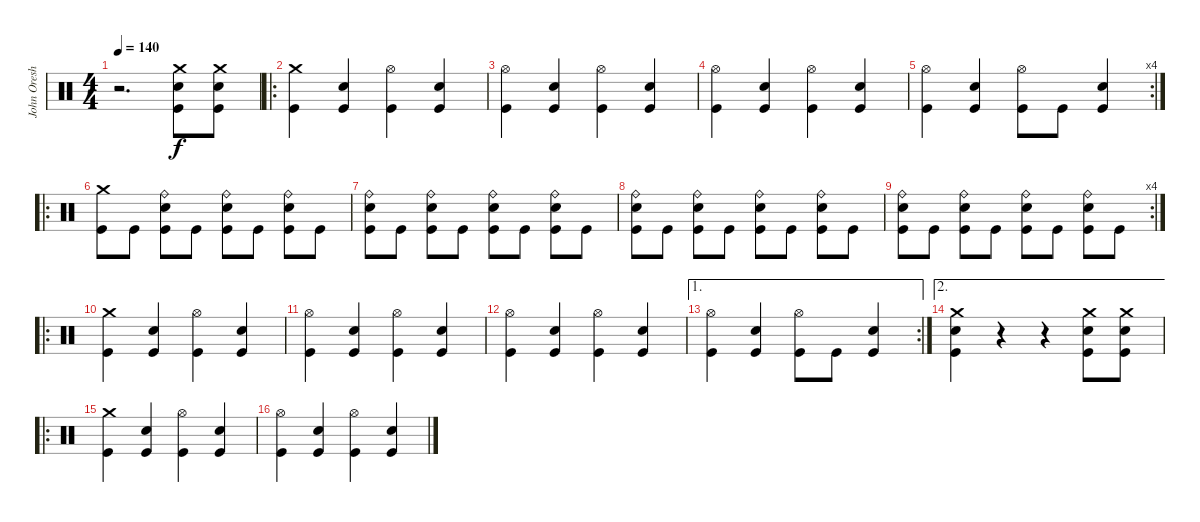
\track ("John Oreshnick (drums)" "John Oresh") {instrument percussion}
\staff {score}
\articulation defaults
\ts (4 4)
\tempo 140
\clef neutral
\ks c
r.2{d dy f} ("Crash medium (hit)" "Snare (hit) 2" "Kick (hit)").8 ("Crash medium (hit)" "Snare (hit) 2" "Kick (hit)").8 |
\ro
("Crash medium (hit)" "Kick (hit)").4 ("Snare (hit) 2" "Kick (hit)").4 ("Hi-Hat (open)" "Kick (hit)").4 ("Snare (hit) 2" "Kick (hit)").4 |
("Hi-Hat (open)" "Kick (hit)").4 ("Snare (hit) 2" "Kick (hit)").4 ("Hi-Hat (open)" "Kick (hit)").4 ("Snare (hit) 2" "Kick (hit)").4 |
("Hi-Hat (open)" "Kick (hit)").4 ("Snare (hit) 2" "Kick (hit)").4 ("Hi-Hat (open)" "Kick (hit)").4 ("Snare (hit) 2" "Kick (hit)").4 |
\rc 4
("Hi-Hat (open)" "Kick (hit)").4 ("Snare (hit) 2" "Kick (hit)").4 ("Hi-Hat (open)" "Kick (hit)").8 "Kick (hit)".8 ("Snare (hit) 2" "Kick (hit)").4 |
\ro
("Crash medium (hit)" "Kick (hit)").8 "Kick (hit)".8 ("Ride (bell)" "Snare (hit) 2" "Kick (hit)").8 "Kick (hit)".8 ("Ride (bell)" "Snare (hit) 2" "Kick (hit)").8 "Kick (hit)".8 ("Ride (bell)" "Snare (hit) 2" "Kick (hit)").8 "Kick (hit)".8 |
("Ride (bell)" "Snare (hit) 2" "Kick (hit)").8 "Kick (hit)".8 ("Ride (bell)" "Snare (hit) 2" "Kick (hit)").8 "Kick (hit)".8 ("Ride (bell)" "Snare (hit) 2" "Kick (hit)").8 "Kick (hit)".8 ("Ride (bell)" "Snare (hit) 2" "Kick (hit)").8 "Kick (hit)".8 |
("Ride (bell)" "Snare (hit) 2" "Kick (hit)").8 "Kick (hit)".8 ("Ride (bell)" "Snare (hit) 2" "Kick (hit)").8 "Kick (hit)".8 ("Ride (bell)" "Snare (hit) 2" "Kick (hit)").8 "Kick (hit)".8 ("Ride (bell)" "Snare (hit) 2" "Kick (hit)").8 "Kick (hit)".8 |
\rc 4
("Ride (bell)" "Snare (hit) 2" "Kick (hit)").8 "Kick (hit)".8 ("Ride (bell)" "Snare (hit) 2" "Kick (hit)").8 "Kick (hit)".8 ("Ride (bell)" "Snare (hit) 2" "Kick (hit)").8 "Kick (hit)".8 ("Ride (bell)" "Snare (hit) 2" "Kick (hit)").8 "Kick (hit)".8 |
\ro
("Crash medium (hit)" "Kick (hit)").4 ("Snare (hit) 2" "Kick (hit)").4 ("Hi-Hat (open)" "Kick (hit)").4 ("Snare (hit) 2" "Kick (hit)").4 |
("Hi-Hat (open)" "Kick (hit)").4 ("Snare (hit) 2" "Kick (hit)").4 ("Hi-Hat (open)" "Kick (hit)").4 ("Snare (hit) 2" "Kick (hit)").4 |
("Hi-Hat (open)" "Kick (hit)").4 ("Snare (hit) 2" "Kick (hit)").4 ("Hi-Hat (open)" "Kick (hit)").4 ("Snare (hit) 2" "Kick (hit)").4 |
\ae 1
\rc 2
("Hi-Hat (open)" "Kick (hit)").4 ("Snare (hit) 2" "Kick (hit)").4 ("Hi-Hat (open)" "Kick (hit)").8 "Kick (hit)".8 ("Snare (hit) 2" "Kick (hit)").4 |
\ae 2
("Crash medium (hit)" "Snare (hit) 2" "Kick (hit)").4 r.4 r.4 ("Crash medium (hit)" "Snare (hit) 2" "Kick (hit)").8 ("Crash medium (hit)" "Snare (hit) 2" "Kick (hit)").8 |
\ro
("Crash medium (hit)" "Kick (hit)").4 ("Snare (hit) 2" "Kick (hit)").4 ("Hi-Hat (open)" "Kick (hit)").4 ("Snare (hit) 2" "Kick (hit)").4 |
("Hi-Hat (open)" "Kick (hit)").4 ("Snare (hit) 2" "Kick (hit)").4 ("Hi-Hat (open)" "Kick (hit)").4 ("Snare (hit) 2" "Kick (hit)").4
